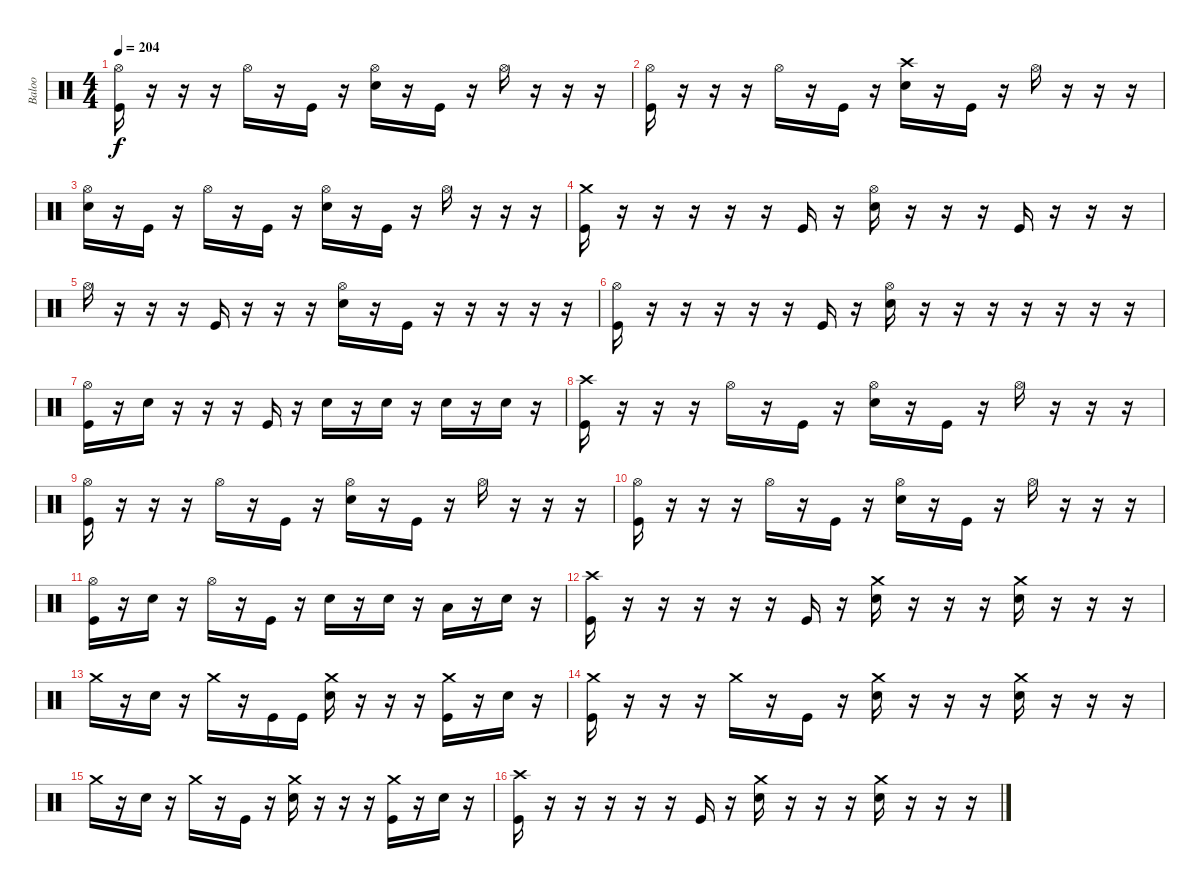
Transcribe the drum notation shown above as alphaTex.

\track ("Baloo" "Baloo") {instrument percussion}
\staff {score}
\articulation defaults
\ts (4 4)
\tempo 204
\clef neutral
\ks c
("Hi-Hat (open)" "Kick (hit)").16{dy f} r.16 r.16 r.16 "Hi-Hat (open)".16 r.16 "Kick (hit)".16 r.16 ("Hi-Hat (open)" "Electric Snare (hit)").16 r.16 "Kick (hit)".16 r.16 "Hi-Hat (open)".16 r.16 r.16 r.16 |
("Hi-Hat (open)" "Kick (hit)").16 r.16 r.16 r.16 "Hi-Hat (open)".16 r.16 "Kick (hit)".16 r.16 ("Crash high (hit)" "Electric Snare (hit)").16 r.16 "Kick (hit)".16 r.16 "Hi-Hat (open)".16 r.16 r.16 r.16 |
("Hi-Hat (open)" "Electric Snare (hit)").16 r.16 "Kick (hit)".16 r.16 "Hi-Hat (open)".16 r.16 "Kick (hit)".16 r.16 ("Hi-Hat (open)" "Electric Snare (hit)").16 r.16 "Kick (hit)".16 r.16 "Hi-Hat (open)".16 r.16 r.16 r.16 |
("Crash medium (hit)" "Kick (hit)").16 r.16 r.16 r.16 r.16 r.16 "Kick (hit)".16 r.16 ("Hi-Hat (open)" "Electric Snare (hit)").16 r.16 r.16 r.16 "Kick (hit)".16 r.16 r.16 r.16 |
"Hi-Hat (open)".16 r.16 r.16 r.16 "Kick (hit)".16 r.16 r.16 r.16 ("Hi-Hat (open)" "Electric Snare (hit)").16 r.16 "Kick (hit)".16 r.16 r.16 r.16 r.16 r.16 |
("Hi-Hat (open)" "Kick (hit)").16 r.16 r.16 r.16 r.16 r.16 "Kick (hit)".16 r.16 ("Hi-Hat (open)" "Electric Snare (hit)").16 r.16 r.16 r.16 r.16 r.16 r.16 r.16 |
("Hi-Hat (open)" "Kick (hit)").16 r.16 "Electric Snare (hit)".16 r.16 r.16 r.16 "Kick (hit)".16 r.16 "Electric Snare (hit)".16 r.16 "Electric Snare (hit)".16 r.16 "Electric Snare (hit)".16 r.16 "Electric Snare (hit)".16 r.16 |
("Crash high (hit)" "Kick (hit)").16 r.16 r.16 r.16 "Hi-Hat (open)".16 r.16 "Kick (hit)".16 r.16 ("Hi-Hat (open)" "Electric Snare (hit)").16 r.16 "Kick (hit)".16 r.16 "Hi-Hat (open)".16 r.16 r.16 r.16 |
("Hi-Hat (open)" "Kick (hit)").16 r.16 r.16 r.16 "Hi-Hat (open)".16 r.16 "Kick (hit)".16 r.16 ("Hi-Hat (open)" "Electric Snare (hit)").16 r.16 "Kick (hit)".16 r.16 "Hi-Hat (open)".16 r.16 r.16 r.16 |
("Hi-Hat (open)" "Kick (hit)").16 r.16 r.16 r.16 "Hi-Hat (open)".16 r.16 "Kick (hit)".16 r.16 ("Hi-Hat (open)" "Electric Snare (hit)").16 r.16 "Kick (hit)".16 r.16 "Hi-Hat (open)".16 r.16 r.16 r.16 |
("Hi-Hat (open)" "Kick (hit)").16 r.16 "Electric Snare (hit)".16 r.16 "Hi-Hat (open)".16 r.16 "Kick (hit)".16 r.16 "Electric Snare (hit)".16 r.16 "Electric Snare (hit)".16 r.16 "Low Tom (hit)".16 r.16 "Electric Snare (hit)".16 r.16 |
("Crash high (hit)" "Kick (hit)").16 r.16 r.16 r.16 r.16 r.16 "Kick (hit)".16 r.16 ("Crash medium (hit)" "Electric Snare (hit)").16 r.16 r.16 r.16 ("Crash medium (hit)" "Electric Snare (hit)").16 r.16 r.16 r.16 |
"Crash medium (hit)".16 r.16 "Electric Snare (hit)".16 r.16 "Crash medium (hit)".16 r.16 "Kick (hit)".16 "Kick (hit)".16 ("Crash medium (hit)" "Electric Snare (hit)").16 r.16 r.16 r.16 ("Crash medium (hit)" "Kick (hit)").16 r.16 "Electric Snare (hit)".16 r.16 |
("Crash medium (hit)" "Kick (hit)").16 r.16 r.16 r.16 "Crash medium (hit)".16 r.16 "Kick (hit)".16 r.16 ("Crash medium (hit)" "Electric Snare (hit)").16 r.16 r.16 r.16 ("Crash medium (hit)" "Electric Snare (hit)").16 r.16 r.16 r.16 |
"Crash medium (hit)".16 r.16 "Electric Snare (hit)".16 r.16 "Crash medium (hit)".16 r.16 "Kick (hit)".16 r.16 ("Crash medium (hit)" "Electric Snare (hit)").16 r.16 r.16 r.16 ("Crash medium (hit)" "Kick (hit)").16 r.16 "Electric Snare (hit)".16 r.16 |
("Crash high (hit)" "Kick (hit)").16 r.16 r.16 r.16 r.16 r.16 "Kick (hit)".16 r.16 ("Crash medium (hit)" "Electric Snare (hit)").16 r.16 r.16 r.16 ("Crash medium (hit)" "Electric Snare (hit)").16 r.16 r.16 r.16
